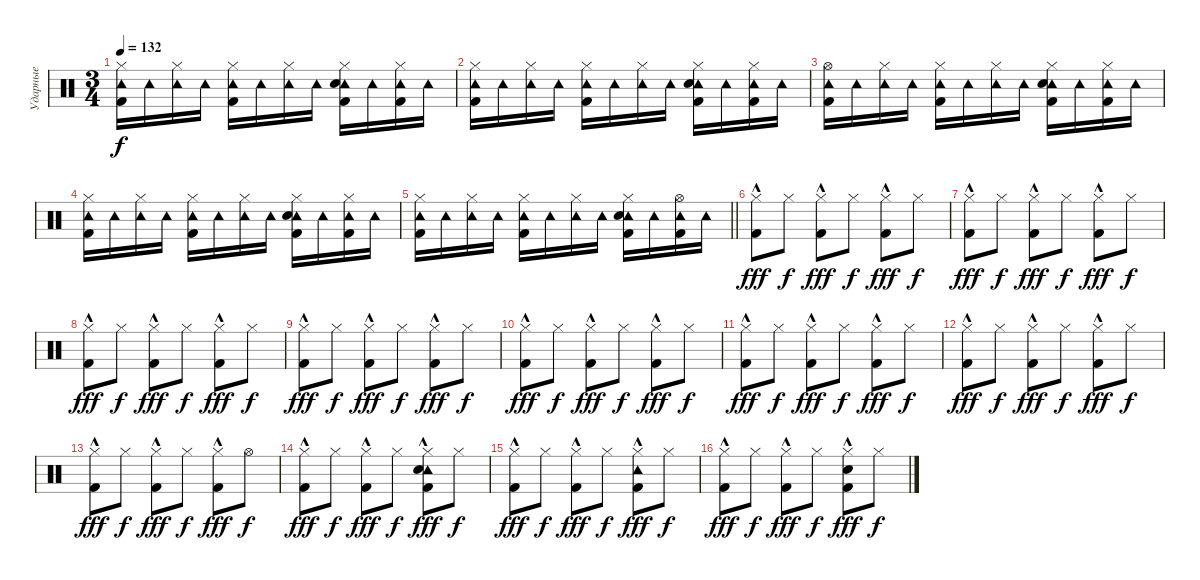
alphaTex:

\track ("Ударные" "Ударные") {instrument percussion}
\staff {score}
\articulation defaults
\ts (3 4)
\tempo 132
\clef neutral
\ks c
("Hi-Hat (closed)" "Tambourine (hit)" "Kick (hit) 2").16{dy f} "Tambourine (hit)".16 ("Hi-Hat (closed)" "Tambourine (hit)").16 "Tambourine (hit)".16 ("Hi-Hat (closed)" "Tambourine (hit)" "Kick (hit) 2").16 "Tambourine (hit)".16 ("Hi-Hat (closed)" "Tambourine (hit)").16 "Tambourine (hit)".16 ("Hi-Hat (closed)" "Tambourine (hit)" "Kick (hit) 2" "Electric Snare (hit)").16 "Tambourine (hit)".16 ("Hi-Hat (closed)" "Tambourine (hit)" "Kick (hit) 2").16 "Tambourine (hit)".16 |
("Hi-Hat (closed)" "Tambourine (hit)" "Kick (hit) 2").16 "Tambourine (hit)".16 ("Hi-Hat (closed)" "Tambourine (hit)").16 "Tambourine (hit)".16 ("Hi-Hat (closed)" "Tambourine (hit)" "Kick (hit) 2").16 "Tambourine (hit)".16 ("Hi-Hat (closed)" "Tambourine (hit)").16 "Tambourine (hit)".16 ("Hi-Hat (closed)" "Tambourine (hit)" "Kick (hit) 2" "Electric Snare (hit)").16 "Tambourine (hit)".16 ("Hi-Hat (closed)" "Tambourine (hit)" "Kick (hit) 2").16 "Tambourine (hit)".16 |
("Hi-Hat (open)" "Tambourine (hit)" "Kick (hit) 2").16 "Tambourine (hit)".16 ("Hi-Hat (closed)" "Tambourine (hit)").16 "Tambourine (hit)".16 ("Hi-Hat (closed)" "Tambourine (hit)" "Kick (hit) 2").16 "Tambourine (hit)".16 ("Hi-Hat (closed)" "Tambourine (hit)").16 "Tambourine (hit)".16 ("Hi-Hat (closed)" "Tambourine (hit)" "Kick (hit) 2" "Electric Snare (hit)").16 "Tambourine (hit)".16 ("Hi-Hat (closed)" "Tambourine (hit)" "Kick (hit) 2").16 "Tambourine (hit)".16 |
("Hi-Hat (closed)" "Tambourine (hit)" "Kick (hit) 2").16 "Tambourine (hit)".16 ("Hi-Hat (closed)" "Tambourine (hit)").16 "Tambourine (hit)".16 ("Hi-Hat (closed)" "Tambourine (hit)" "Kick (hit) 2").16 "Tambourine (hit)".16 ("Hi-Hat (closed)" "Tambourine (hit)").16 "Tambourine (hit)".16 ("Hi-Hat (closed)" "Tambourine (hit)" "Kick (hit) 2" "Electric Snare (hit)").16 "Tambourine (hit)".16 ("Hi-Hat (closed)" "Tambourine (hit)" "Kick (hit) 2").16 "Tambourine (hit)".16 |
\barLineRight lightlight
("Hi-Hat (closed)" "Tambourine (hit)" "Kick (hit) 2").16 "Tambourine (hit)".16 ("Hi-Hat (closed)" "Tambourine (hit)").16 "Tambourine (hit)".16 ("Hi-Hat (closed)" "Tambourine (hit)" "Kick (hit) 2").16 "Tambourine (hit)".16 ("Hi-Hat (closed)" "Tambourine (hit)").16 "Tambourine (hit)".16 ("Hi-Hat (closed)" "Tambourine (hit)" "Kick (hit) 2" "Electric Snare (hit)").16 "Tambourine (hit)".16 ("Hi-Hat (open)" "Tambourine (hit)" "Kick (hit) 2").16 "Tambourine (hit)".16 |
\section ("" "")
("Hi-Hat (closed)"{hac} "Kick (hit) 2").8{dy fff} "Hi-Hat (closed)".8{dy f} ("Hi-Hat (closed)"{hac} "Kick (hit) 2").8{dy fff} "Hi-Hat (closed)".8{dy f} ("Hi-Hat (closed)"{hac} "Kick (hit) 2").8{dy fff} "Hi-Hat (closed)".8{dy f} |
("Hi-Hat (closed)"{hac} "Kick (hit) 2").8{dy fff} "Hi-Hat (closed)".8{dy f} ("Hi-Hat (closed)"{hac} "Kick (hit) 2").8{dy fff} "Hi-Hat (closed)".8{dy f} ("Hi-Hat (closed)"{hac} "Kick (hit) 2").8{dy fff} "Hi-Hat (closed)".8{dy f} |
("Hi-Hat (closed)"{hac} "Kick (hit) 2").8{dy fff} "Hi-Hat (closed)".8{dy f} ("Hi-Hat (closed)"{hac} "Kick (hit) 2").8{dy fff} "Hi-Hat (closed)".8{dy f} ("Hi-Hat (closed)"{hac} "Kick (hit) 2").8{dy fff} "Hi-Hat (closed)".8{dy f} |
("Hi-Hat (closed)"{hac} "Kick (hit) 2").8{dy fff} "Hi-Hat (closed)".8{dy f} ("Hi-Hat (closed)"{hac} "Kick (hit) 2").8{dy fff} "Hi-Hat (closed)".8{dy f} ("Hi-Hat (closed)"{hac} "Kick (hit) 2").8{dy fff} "Hi-Hat (closed)".8{dy f} |
("Hi-Hat (closed)"{hac} "Kick (hit) 2").8{dy fff} "Hi-Hat (closed)".8{dy f} ("Hi-Hat (closed)"{hac} "Kick (hit) 2").8{dy fff} "Hi-Hat (closed)".8{dy f} ("Hi-Hat (closed)"{hac} "Kick (hit) 2").8{dy fff} "Hi-Hat (closed)".8{dy f} |
("Hi-Hat (closed)"{hac} "Kick (hit) 2").8{dy fff} "Hi-Hat (closed)".8{dy f} ("Hi-Hat (closed)"{hac} "Kick (hit) 2").8{dy fff} "Hi-Hat (closed)".8{dy f} ("Hi-Hat (closed)"{hac} "Kick (hit) 2").8{dy fff} "Hi-Hat (closed)".8{dy f} |
("Hi-Hat (closed)"{hac} "Kick (hit) 2").8{dy fff} "Hi-Hat (closed)".8{dy f} ("Hi-Hat (closed)"{hac} "Kick (hit) 2").8{dy fff} "Hi-Hat (closed)".8{dy f} ("Hi-Hat (closed)"{hac} "Kick (hit) 2").8{dy fff} "Hi-Hat (closed)".8{dy f} |
("Hi-Hat (closed)"{hac} "Kick (hit) 2").8{dy fff} "Hi-Hat (closed)".8{dy f} ("Hi-Hat (closed)"{hac} "Kick (hit) 2").8{dy fff} "Hi-Hat (closed)".8{dy f} ("Hi-Hat (closed)"{hac} "Kick (hit) 2").8{dy fff} "Hi-Hat (open)".8{dy f} |
("Hi-Hat (closed)"{hac} "Kick (hit) 2").8{dy fff} "Hi-Hat (closed)".8{dy f} ("Hi-Hat (closed)"{hac} "Kick (hit) 2").8{dy fff} "Hi-Hat (closed)".8{dy f} ("Hi-Hat (closed)"{hac} "Tambourine (hit)" "Kick (hit) 2" "Electric Snare (hit)").8{dy fff} "Hi-Hat (closed)".8{dy f} |
("Hi-Hat (closed)"{hac} "Kick (hit) 2").8{dy fff} "Hi-Hat (closed)".8{dy f} ("Hi-Hat (closed)"{hac} "Kick (hit) 2").8{dy fff} "Hi-Hat (closed)".8{dy f} ("Hi-Hat (closed)"{hac} "Tambourine (hit)" "Kick (hit) 2").8{dy fff} "Hi-Hat (closed)".8{dy f} |
("Hi-Hat (closed)"{hac} "Kick (hit) 2").8{dy fff} "Hi-Hat (closed)".8{dy f} ("Hi-Hat (closed)"{hac} "Kick (hit) 2").8{dy fff} "Hi-Hat (closed)".8{dy f} ("Hi-Hat (closed)"{hac} "Kick (hit) 2" "Electric Snare (hit)").8{dy fff} "Hi-Hat (closed)".8{dy f}
